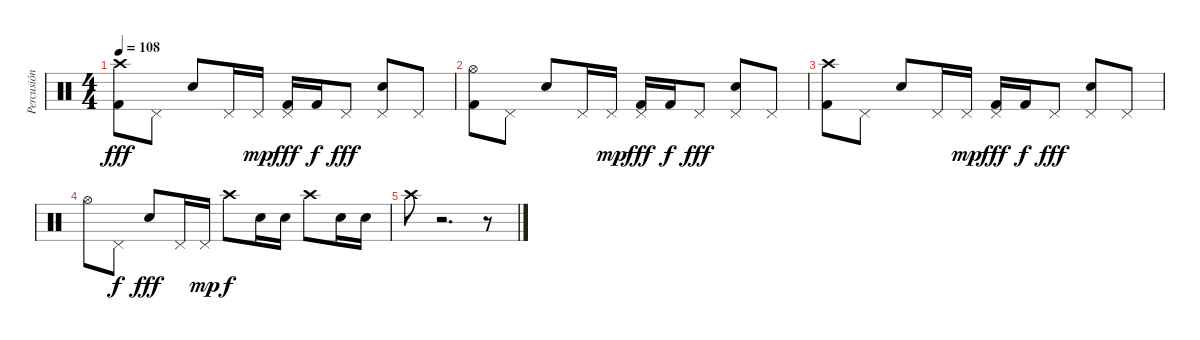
\track ("Percusión" "Percusión") {instrument percussion}
\staff {score}
\articulation defaults
\ts (4 4)
\tempo 108
\clef neutral
\ks c
("Crash high (hit)" "Kick (hit) 2").8{dy fff} "Pedal Hi-Hat (hit)".8 "Snare (hit) 2".8 "Pedal Hi-Hat (hit)".16 "Pedal Hi-Hat (hit)".16{dy mp} ("Pedal Hi-Hat (hit)" "Kick (hit) 2").16{dy fff} "Kick (hit) 2".16{dy f} "Pedal Hi-Hat (hit)".8{dy fff} ("Snare (hit) 2" "Pedal Hi-Hat (hit)").8 "Pedal Hi-Hat (hit)".8 |
("Hi-Hat (open)" "Kick (hit) 2").8 "Pedal Hi-Hat (hit)".8 "Snare (hit) 2".8 "Pedal Hi-Hat (hit)".16 "Pedal Hi-Hat (hit)".16{dy mp} ("Pedal Hi-Hat (hit)" "Kick (hit) 2").16{dy fff} "Kick (hit) 2".16{dy f} "Pedal Hi-Hat (hit)".8{dy fff} ("Snare (hit) 2" "Pedal Hi-Hat (hit)").8 "Pedal Hi-Hat (hit)".8 |
("Crash high (hit)" "Kick (hit) 2").8 "Pedal Hi-Hat (hit)".8 "Snare (hit) 2".8 "Pedal Hi-Hat (hit)".16 "Pedal Hi-Hat (hit)".16{dy mp} ("Pedal Hi-Hat (hit)" "Kick (hit) 2").16{dy fff} "Kick (hit) 2".16{dy f} "Pedal Hi-Hat (hit)".8{dy fff} ("Snare (hit) 2" "Pedal Hi-Hat (hit)").8 "Pedal Hi-Hat (hit)".8 |
"Hi-Hat (open)".8 "Pedal Hi-Hat (hit)".8{dy f} "Snare (hit) 2".8{dy fff} "Pedal Hi-Hat (hit)".16 "Pedal Hi-Hat (hit)".16{dy mp} "Crash high (hit)".8{dy f} "Snare (hit) 2".16 "Snare (hit) 2".16 "Crash high (hit)".8 "Snare (hit) 2".16 "Snare (hit) 2".16 |
"Crash high (hit)".8 r.2{d} r.8
